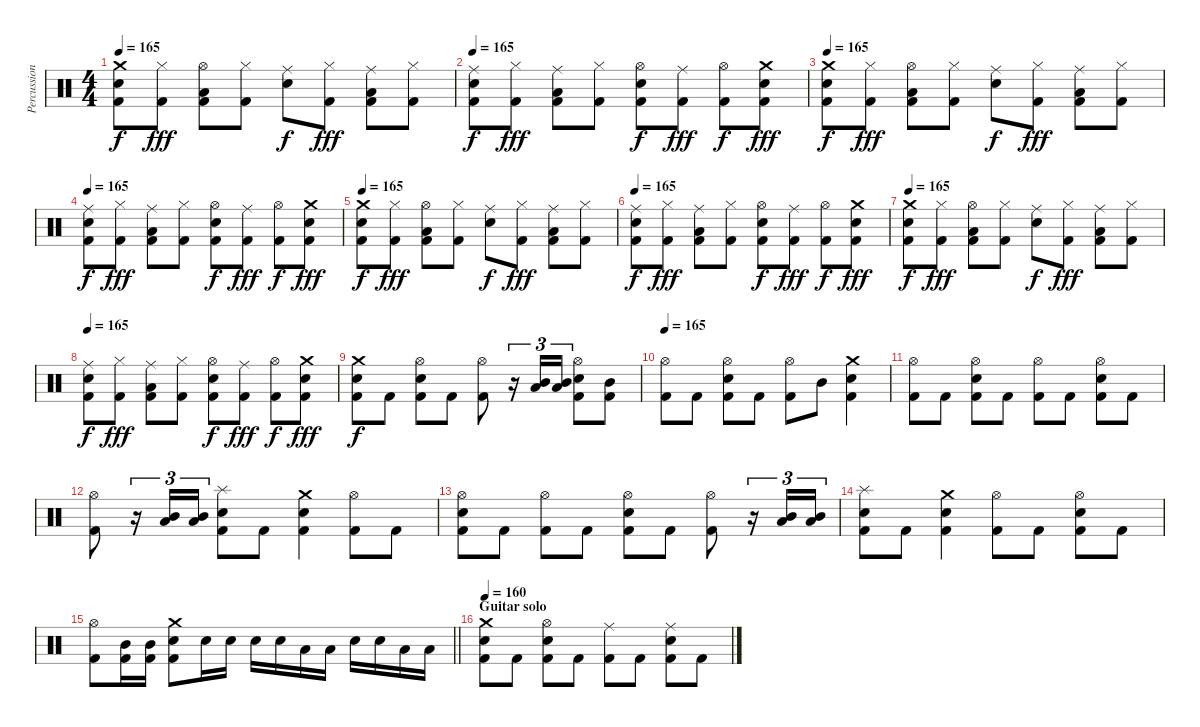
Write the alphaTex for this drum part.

\track ("Percussion" "Percussion") {instrument percussion}
\staff {score}
\articulation defaults
\ts (4 4)
\tempo 165
\clef neutral
\ks c
("Crash medium (hit)" "Electric Snare (hit)" "Kick (hit) 2").8{dy f} ("Hi-Hat (closed)" "Kick (hit) 2").8{dy fff} ("Hi-Hat (open)" "Low Floor Tom (hit)" "Kick (hit) 2").8 ("Hi-Hat (closed)" "Kick (hit) 2").8 ("Ride (middle)" "Electric Snare (hit)").8{dy f} ("Hi-Hat (closed)" "Kick (hit) 2").8{dy fff} ("Ride (middle)" "Low Floor Tom (hit)" "Kick (hit) 2").8 ("Hi-Hat (closed)" "Kick (hit) 2").8 |
\tempo 165
("Ride (middle)" "Electric Snare (hit)" "Kick (hit) 2").8{dy f} ("Hi-Hat (closed)" "Kick (hit) 2").8{dy fff} ("Ride (middle)" "Low Floor Tom (hit)" "Kick (hit) 2").8 ("Hi-Hat (closed)" "Kick (hit) 2").8 ("Hi-Hat (open)" "Electric Snare (hit)" "Kick (hit) 2").8{dy f} ("Ride (middle)" "Kick (hit) 2").8{dy fff} ("Hi-Hat (open)" "Kick (hit) 2").8{dy f} ("Crash medium (hit)" "Electric Snare (hit)" "Kick (hit) 2").8{dy fff} |
\tempo 165
("Crash medium (hit)" "Electric Snare (hit)" "Kick (hit) 2").8{dy f} ("Hi-Hat (closed)" "Kick (hit) 2").8{dy fff} ("Hi-Hat (open)" "Low Floor Tom (hit)" "Kick (hit) 2").8 ("Hi-Hat (closed)" "Kick (hit) 2").8 ("Ride (middle)" "Electric Snare (hit)").8{dy f} ("Hi-Hat (closed)" "Kick (hit) 2").8{dy fff} ("Ride (middle)" "Low Floor Tom (hit)" "Kick (hit) 2").8 ("Hi-Hat (closed)" "Kick (hit) 2").8 |
\tempo 165
("Ride (middle)" "Electric Snare (hit)" "Kick (hit) 2").8{dy f} ("Hi-Hat (closed)" "Kick (hit) 2").8{dy fff} ("Ride (middle)" "Low Floor Tom (hit)" "Kick (hit) 2").8 ("Hi-Hat (closed)" "Kick (hit) 2").8 ("Hi-Hat (open)" "Electric Snare (hit)" "Kick (hit) 2").8{dy f} ("Ride (middle)" "Kick (hit) 2").8{dy fff} ("Hi-Hat (open)" "Kick (hit) 2").8{dy f} ("Crash medium (hit)" "Electric Snare (hit)" "Kick (hit) 2").8{dy fff} |
\tempo 165
("Crash medium (hit)" "Electric Snare (hit)" "Kick (hit) 2").8{dy f} ("Hi-Hat (closed)" "Kick (hit) 2").8{dy fff} ("Hi-Hat (open)" "Low Floor Tom (hit)" "Kick (hit) 2").8 ("Hi-Hat (closed)" "Kick (hit) 2").8 ("Ride (middle)" "Electric Snare (hit)").8{dy f} ("Hi-Hat (closed)" "Kick (hit) 2").8{dy fff} ("Ride (middle)" "Low Floor Tom (hit)" "Kick (hit) 2").8 ("Hi-Hat (closed)" "Kick (hit) 2").8 |
\tempo 165
("Ride (middle)" "Electric Snare (hit)" "Kick (hit) 2").8{dy f} ("Hi-Hat (closed)" "Kick (hit) 2").8{dy fff} ("Ride (middle)" "Low Floor Tom (hit)" "Kick (hit) 2").8 ("Hi-Hat (closed)" "Kick (hit) 2").8 ("Hi-Hat (open)" "Electric Snare (hit)" "Kick (hit) 2").8{dy f} ("Ride (middle)" "Kick (hit) 2").8{dy fff} ("Hi-Hat (open)" "Kick (hit) 2").8{dy f} ("Crash medium (hit)" "Electric Snare (hit)" "Kick (hit) 2").8{dy fff} |
\tempo 165
("Crash medium (hit)" "Electric Snare (hit)" "Kick (hit) 2").8{dy f} ("Hi-Hat (closed)" "Kick (hit) 2").8{dy fff} ("Hi-Hat (open)" "Low Floor Tom (hit)" "Kick (hit) 2").8 ("Hi-Hat (closed)" "Kick (hit) 2").8 ("Ride (middle)" "Electric Snare (hit)").8{dy f} ("Hi-Hat (closed)" "Kick (hit) 2").8{dy fff} ("Ride (middle)" "Low Floor Tom (hit)" "Kick (hit) 2").8 ("Hi-Hat (closed)" "Kick (hit) 2").8 |
\tempo 165
("Ride (middle)" "Electric Snare (hit)" "Kick (hit) 2").8{dy f} ("Hi-Hat (closed)" "Kick (hit) 2").8{dy fff} ("Ride (middle)" "Low Floor Tom (hit)" "Kick (hit) 2").8 ("Hi-Hat (closed)" "Kick (hit) 2").8 ("Hi-Hat (open)" "Electric Snare (hit)" "Kick (hit) 2").8{dy f} ("Ride (middle)" "Kick (hit) 2").8{dy fff} ("Hi-Hat (open)" "Kick (hit) 2").8{dy f} ("Crash medium (hit)" "Electric Snare (hit)" "Kick (hit) 2").8{dy fff} |
("Crash medium (hit)" "Electric Snare (hit)" "Kick (hit) 2").8{dy f} "Kick (hit) 2".8 ("Hi-Hat (open)" "Electric Snare (hit)" "Kick (hit) 2").8 "Kick (hit) 2".8 ("Hi-Hat (open)" "Kick (hit) 2").8 r.16{tu (3 2)} ("Mid Tom (hit)" "Low Tom (hit)").16{tu (3 2)} ("Mid Tom (hit)" "Low Tom (hit)").16{tu (3 2)} ("Hi-Hat (open)" "Electric Snare (hit)" "Kick (hit) 2").8 ("Mid Tom (hit)" "Kick (hit) 2").8 |
\tempo 165
("Hi-Hat (open)" "Kick (hit) 2").8 "Kick (hit) 2".8 ("Hi-Hat (open)" "Electric Snare (hit)" "Kick (hit) 2").8 "Kick (hit) 2".8 ("Hi-Hat (open)" "Kick (hit) 2").8 "Mid Tom (hit)".8 ("Crash medium (hit)" "Electric Snare (hit)" "Kick (hit) 2").4 |
("Hi-Hat (open)" "Kick (hit) 2").8 "Kick (hit) 2".8 ("Hi-Hat (open)" "Electric Snare (hit)" "Kick (hit) 2").8 "Kick (hit) 2".8 ("Hi-Hat (open)" "Kick (hit) 2").8 "Kick (hit) 2".8 ("Hi-Hat (open)" "Electric Snare (hit)" "Kick (hit) 2").8 "Kick (hit) 2".8 |
("Hi-Hat (open)" "Kick (hit) 2").8 r.16{tu (3 2)} ("Mid Tom (hit)" "Low Tom (hit)").16{tu (3 2)} ("Mid Tom (hit)" "Low Tom (hit)").16{tu (3 2)} ("Splash (hit)" "Electric Snare (hit)" "Kick (hit) 2").8 "Kick (hit) 2".8 ("Crash medium (hit)" "Electric Snare (hit)" "Kick (hit) 2").4 ("Hi-Hat (open)" "Kick (hit) 2").8 "Kick (hit) 2".8 |
("Hi-Hat (open)" "Electric Snare (hit)" "Kick (hit) 2").8 "Kick (hit) 2".8 ("Hi-Hat (open)" "Kick (hit) 2").8 "Kick (hit) 2".8 ("Hi-Hat (open)" "Electric Snare (hit)" "Kick (hit) 2").8 "Kick (hit) 2".8 ("Hi-Hat (open)" "Kick (hit) 2").8 r.16{tu (3 2)} ("Mid Tom (hit)" "Low Tom (hit)").16{tu (3 2)} ("Mid Tom (hit)" "Low Tom (hit)").16{tu (3 2)} |
("Splash (hit)" "Electric Snare (hit)" "Kick (hit) 2").8 "Kick (hit) 2".8 ("Crash medium (hit)" "Electric Snare (hit)" "Kick (hit) 2").4 ("Hi-Hat (open)" "Kick (hit) 2").8 "Kick (hit) 2".8 ("Hi-Hat (open)" "Electric Snare (hit)" "Kick (hit) 2").8 "Kick (hit) 2".8 |
\barLineRight lightlight
("Hi-Hat (open)" "Kick (hit) 2").8 ("Mid Tom (hit)" "Kick (hit) 2").16 ("Mid Tom (hit)" "Kick (hit) 2").16 ("Crash medium (hit)" "Electric Snare (hit)" "Kick (hit) 2").8 "Electric Snare (hit)".16 "Electric Snare (hit)".16 "Electric Snare (hit)".16 "Electric Snare (hit)".16 "Low Tom (hit)".16 "Low Tom (hit)".16 "Electric Snare (hit)".16 "Electric Snare (hit)".16 "Low Tom (hit)".16 "Low Tom (hit)".16 |
\section ("" "Guitar solo")
\tempo 160
("Crash medium (hit)" "Electric Snare (hit)" "Kick (hit) 2").8 "Kick (hit) 2".8 ("Hi-Hat (open)" "Electric Snare (hit)" "Kick (hit) 2").8 "Kick (hit) 2".8 ("Ride (middle)" "Kick (hit) 2").8 "Kick (hit) 2".8 ("Ride (middle)" "Electric Snare (hit)" "Kick (hit) 2").8 "Kick (hit) 2".8
